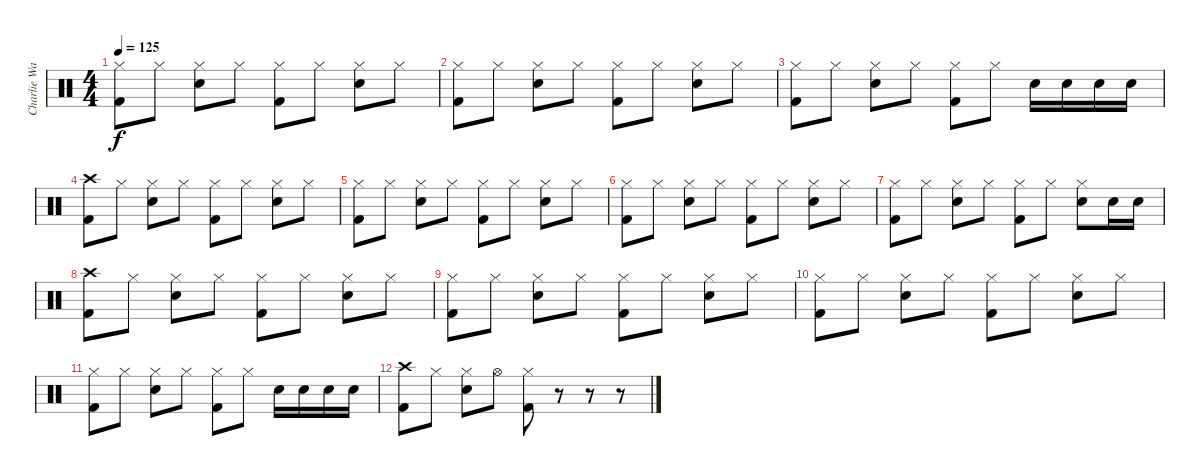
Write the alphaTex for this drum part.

\track ("Charlie Watson" "Charlie Wa") {instrument percussion}
\staff {score}
\articulation defaults
\ts (4 4)
\tempo 125
\clef neutral
\ks c
("Hi-Hat (closed)" "Kick (hit) 2").8{dy f} "Hi-Hat (closed)".8 ("Hi-Hat (closed)" "Snare (hit) 2").8 "Hi-Hat (closed)".8 ("Hi-Hat (closed)" "Kick (hit) 2").8 "Hi-Hat (closed)".8 ("Hi-Hat (closed)" "Snare (hit) 2").8 "Hi-Hat (closed)".8 |
("Hi-Hat (closed)" "Kick (hit) 2").8 "Hi-Hat (closed)".8 ("Hi-Hat (closed)" "Snare (hit) 2").8 "Hi-Hat (closed)".8 ("Hi-Hat (closed)" "Kick (hit) 2").8 "Hi-Hat (closed)".8 ("Hi-Hat (closed)" "Snare (hit) 2").8 "Hi-Hat (closed)".8 |
("Hi-Hat (closed)" "Kick (hit) 2").8 "Hi-Hat (closed)".8 ("Hi-Hat (closed)" "Snare (hit) 2").8 "Hi-Hat (closed)".8 ("Hi-Hat (closed)" "Kick (hit) 2").8 "Hi-Hat (closed)".8 "Snare (hit) 2".16 "Snare (hit) 2".16 "Snare (hit) 2".16 "Snare (hit) 2".16 |
("Crash high (hit)" "Kick (hit) 2").8 "Hi-Hat (closed)".8 ("Hi-Hat (closed)" "Snare (hit) 2").8 "Hi-Hat (closed)".8 ("Hi-Hat (closed)" "Kick (hit) 2").8 "Hi-Hat (closed)".8 ("Hi-Hat (closed)" "Snare (hit) 2").8 "Hi-Hat (closed)".8 |
("Hi-Hat (closed)" "Kick (hit) 2").8 "Hi-Hat (closed)".8 ("Hi-Hat (closed)" "Snare (hit) 2").8 "Hi-Hat (closed)".8 ("Hi-Hat (closed)" "Kick (hit) 2").8 "Hi-Hat (closed)".8 ("Hi-Hat (closed)" "Snare (hit) 2").8 "Hi-Hat (closed)".8 |
("Hi-Hat (closed)" "Kick (hit) 2").8 "Hi-Hat (closed)".8 ("Hi-Hat (closed)" "Snare (hit) 2").8 "Hi-Hat (closed)".8 ("Hi-Hat (closed)" "Kick (hit) 2").8 "Hi-Hat (closed)".8 ("Hi-Hat (closed)" "Snare (hit) 2").8 "Hi-Hat (closed)".8 |
("Hi-Hat (closed)" "Kick (hit) 2").8 "Hi-Hat (closed)".8 ("Hi-Hat (closed)" "Snare (hit) 2").8 "Hi-Hat (closed)".8 ("Hi-Hat (closed)" "Kick (hit) 2").8 "Hi-Hat (closed)".8 ("Hi-Hat (closed)" "Snare (hit) 2").8 "Snare (hit) 2".16 "Snare (hit) 2".16 |
("Crash high (hit)" "Kick (hit) 2").8 "Hi-Hat (closed)".8 ("Hi-Hat (closed)" "Snare (hit) 2").8 "Hi-Hat (closed)".8 ("Hi-Hat (closed)" "Kick (hit) 2").8 "Hi-Hat (closed)".8 ("Hi-Hat (closed)" "Snare (hit) 2").8 "Hi-Hat (closed)".8 |
("Hi-Hat (closed)" "Kick (hit) 2").8 "Hi-Hat (closed)".8 ("Hi-Hat (closed)" "Snare (hit) 2").8 "Hi-Hat (closed)".8 ("Hi-Hat (closed)" "Kick (hit) 2").8 "Hi-Hat (closed)".8 ("Hi-Hat (closed)" "Snare (hit) 2").8 "Hi-Hat (closed)".8 |
("Hi-Hat (closed)" "Kick (hit) 2").8 "Hi-Hat (closed)".8 ("Hi-Hat (closed)" "Snare (hit) 2").8 "Hi-Hat (closed)".8 ("Hi-Hat (closed)" "Kick (hit) 2").8 "Hi-Hat (closed)".8 ("Hi-Hat (closed)" "Snare (hit) 2").8 "Hi-Hat (closed)".8 |
("Hi-Hat (closed)" "Kick (hit) 2").8 "Hi-Hat (closed)".8 ("Hi-Hat (closed)" "Snare (hit) 2").8 "Hi-Hat (closed)".8 ("Hi-Hat (closed)" "Kick (hit) 2").8 "Hi-Hat (closed)".8 "Snare (hit) 2".16 "Snare (hit) 2".16 "Snare (hit) 2".16 "Snare (hit) 2".16 |
("Crash high (hit)" "Kick (hit) 2").8 "Hi-Hat (closed)".8 ("Hi-Hat (closed)" "Snare (hit) 2").8 "Hi-Hat (open)".8 ("Hi-Hat (closed)" "Kick (hit) 2").8 r.8 r.8 r.8
